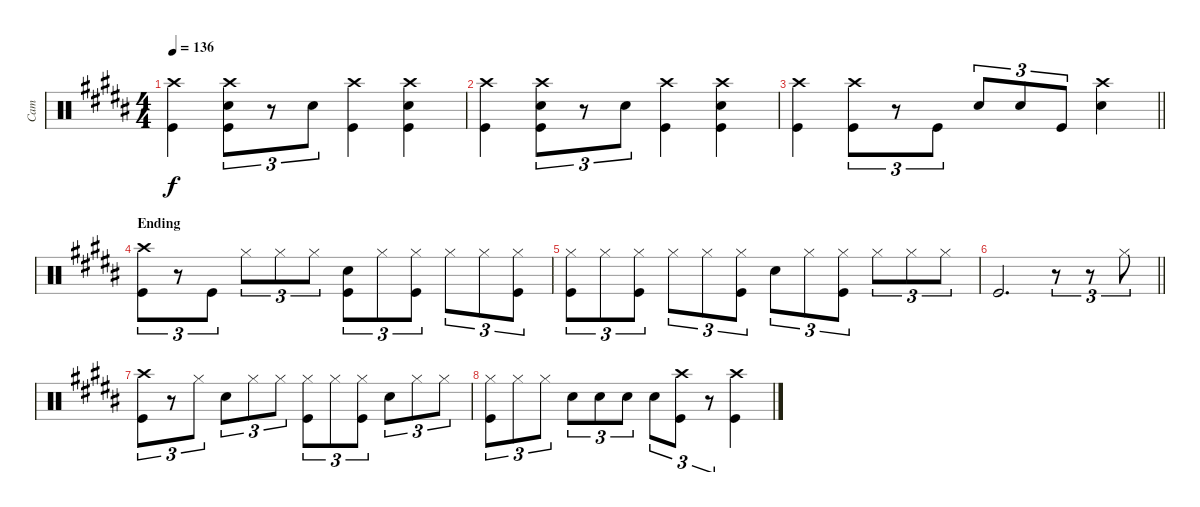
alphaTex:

\track ("Cam" "Cam") {instrument percussion}
\staff {score}
\articulation defaults
\ts (4 4)
\tempo 136
\clef neutral
\ks b
("Crash high (hit)" "Kick (hit)").4{dy f} ("Crash high (hit)" "Snare (hit) 2" "Kick (hit)").8{tu (3 2)} r.8{tu (3 2)} "Snare (hit) 2".8{tu (3 2)} ("Crash high (hit)" "Kick (hit)").4 ("Crash high (hit)" "Snare (hit) 2" "Kick (hit)").4 |
("Crash high (hit)" "Kick (hit)").4 ("Crash high (hit)" "Snare (hit) 2" "Kick (hit)").8{tu (3 2)} r.8{tu (3 2)} "Snare (hit) 2".8{tu (3 2)} ("Crash high (hit)" "Kick (hit)").4 ("Crash high (hit)" "Snare (hit) 2" "Kick (hit)").4 |
\barLineRight lightlight
("Crash high (hit)" "Kick (hit)").4 ("Crash high (hit)" "Kick (hit)").8{tu (3 2)} r.8{tu (3 2)} "Kick (hit)".8{tu (3 2)} "Snare (hit) 2".8{tu (3 2)} "Snare (hit) 2".8{tu (3 2)} "Kick (hit)".8{tu (3 2)} ("Crash high (hit)" "Snare (hit) 2").4 |
\section ("" "Ending")
("Crash high (hit)" "Kick (hit)").8{tu (3 2)} r.8{tu (3 2)} "Kick (hit)".8{tu (3 2)} "Hi-Hat (closed)".8{tu (3 2)} "Hi-Hat (closed)".8{tu (3 2)} "Hi-Hat (closed)".8{tu (3 2)} ("Snare (hit) 2" "Kick (hit)").8{tu (3 2)} "Hi-Hat (closed)".8{tu (3 2)} ("Hi-Hat (closed)" "Kick (hit)").8{tu (3 2)} "Hi-Hat (closed)".8{tu (3 2)} "Hi-Hat (closed)".8{tu (3 2)} ("Hi-Hat (closed)" "Kick (hit)").8{tu (3 2)} |
("Hi-Hat (closed)" "Kick (hit)").8{tu (3 2)} "Hi-Hat (closed)".8{tu (3 2)} ("Hi-Hat (closed)" "Kick (hit)").8{tu (3 2)} "Hi-Hat (closed)".8{tu (3 2)} "Hi-Hat (closed)".8{tu (3 2)} ("Hi-Hat (closed)" "Kick (hit)").8{tu (3 2)} "Snare (hit) 2".8{tu (3 2)} "Hi-Hat (closed)".8{tu (3 2)} ("Hi-Hat (closed)" "Kick (hit)").8{tu (3 2)} "Hi-Hat (closed)".8{tu (3 2)} "Hi-Hat (closed)".8{tu (3 2)} "Hi-Hat (closed)".8{tu (3 2)} |
\barLineRight lightlight "Kick (hit)".2{d}
r.8{tu (3 2)} r.8{tu (3 2)} "Hi-Hat (closed)".8{tu (3 2)} |
("Crash high (hit)" "Kick (hit)").8{tu (3 2)} r.8{tu (3 2)} "Hi-Hat (closed)".8{tu (3 2)} "Snare (hit) 2".8{tu (3 2)} "Hi-Hat (closed)".8{tu (3 2)} "Hi-Hat (closed)".8{tu (3 2)} ("Hi-Hat (closed)" "Kick (hit)").8{tu (3 2)} "Hi-Hat (closed)".8{tu (3 2)} ("Hi-Hat (closed)" "Kick (hit)").8{tu (3 2)} "Snare (hit) 2".8{tu (3 2)} "Hi-Hat (closed)".8{tu (3 2)} "Hi-Hat (closed)".8{tu (3 2)} |
("Hi-Hat (closed)" "Kick (hit)").8{tu (3 2)} "Hi-Hat (closed)".8{tu (3 2)} "Hi-Hat (closed)".8{tu (3 2)} "Snare (hit) 2".8{tu (3 2)} "Snare (hit) 2".8{tu (3 2)} "Snare (hit) 2".8{tu (3 2)} "Snare (hit) 2".8{tu (3 2)} ("Crash high (hit)" "Kick (hit)").8{tu (3 2)} r.8{tu (3 2)} ("Crash high (hit)" "Kick (hit)").4
